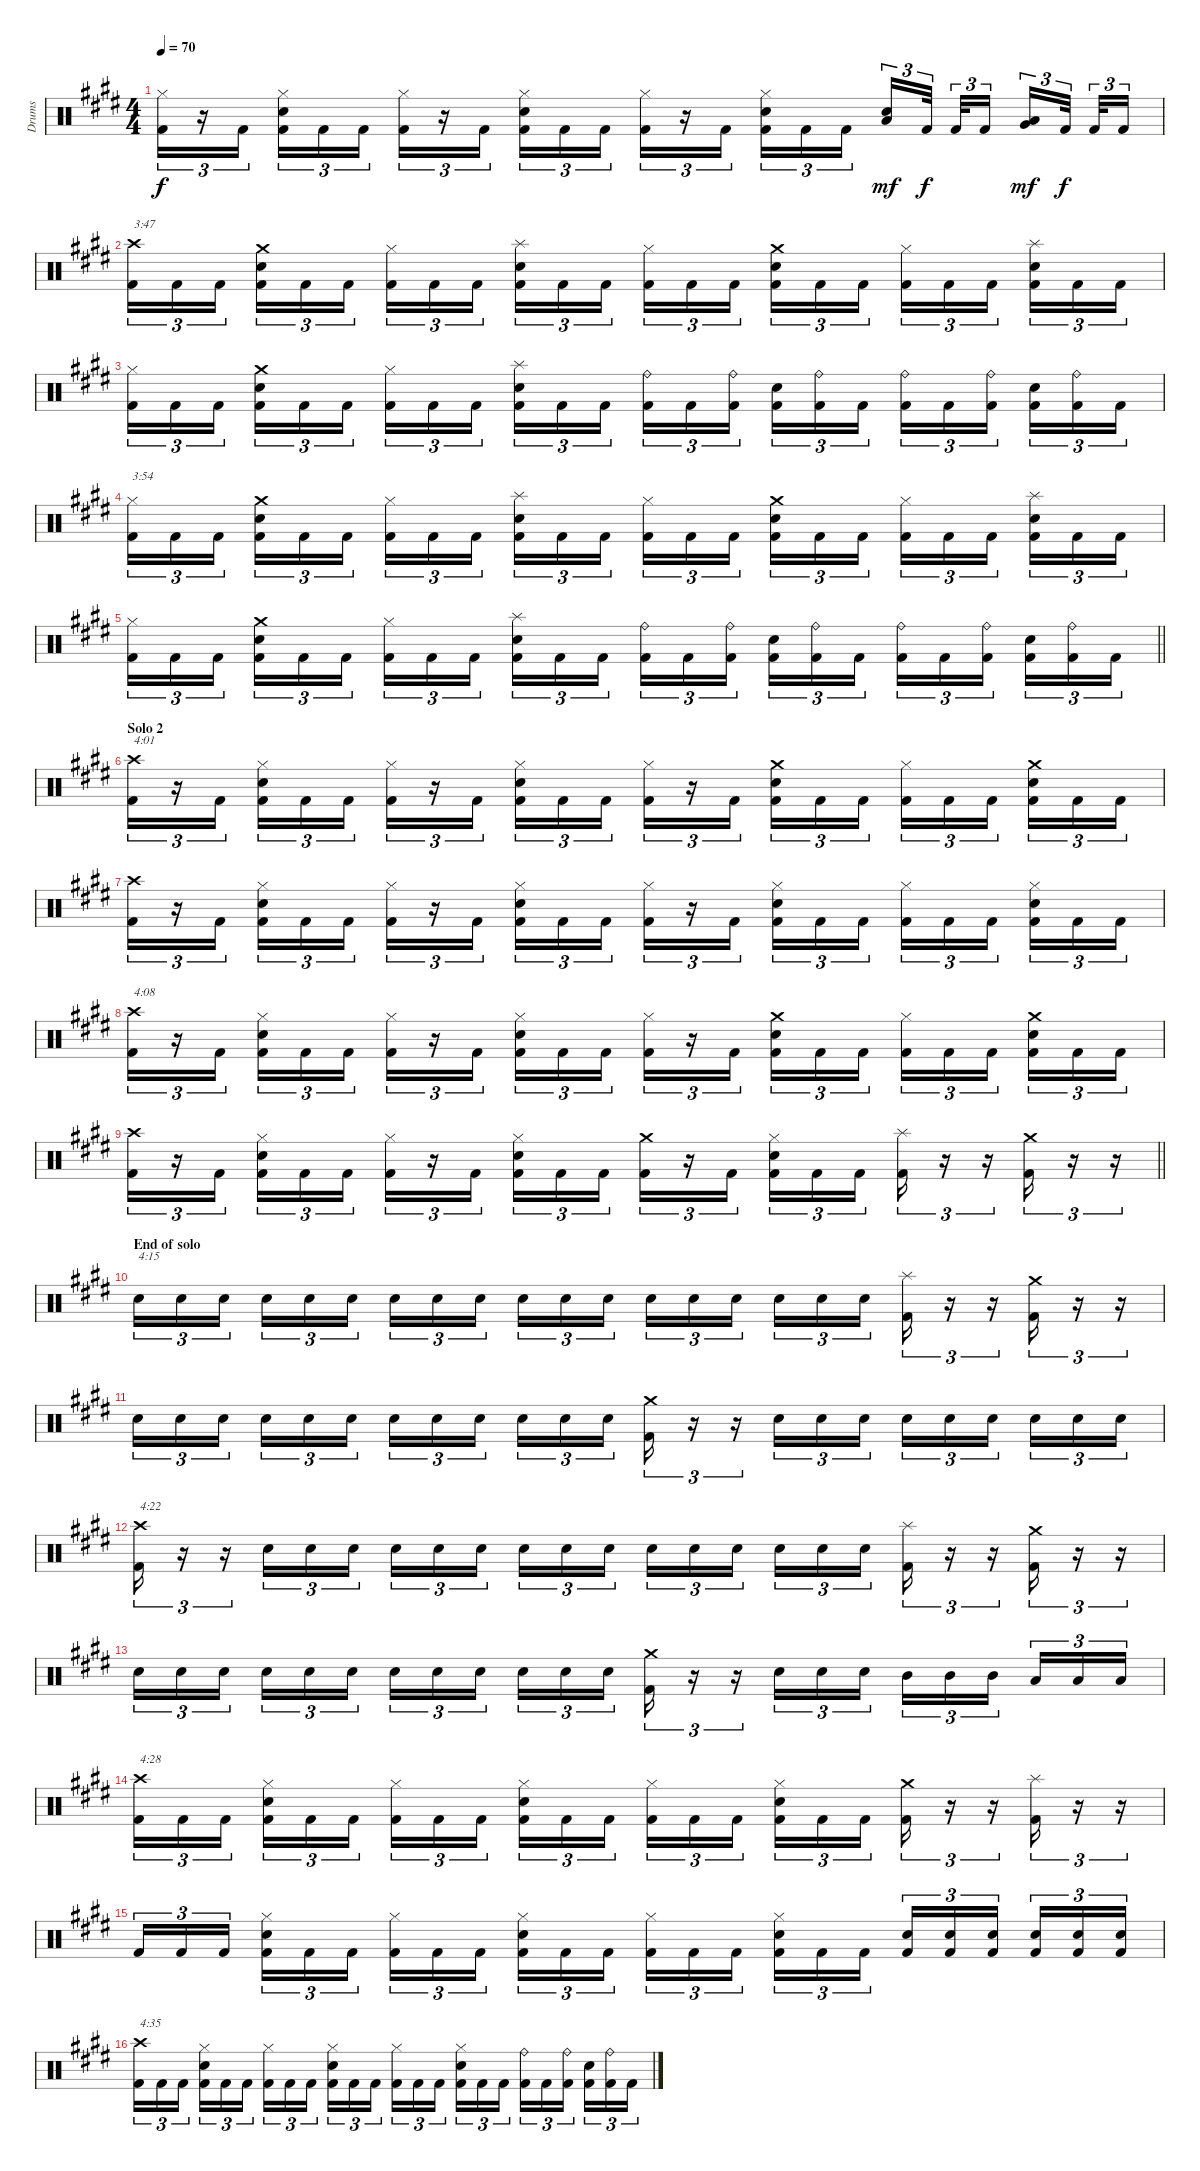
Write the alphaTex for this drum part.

\track ("Drums" "Drums") {instrument percussion}
\staff {score}
\articulation defaults
\ts (4 4)
\tempo 70
\clef neutral
\ks c#minor
("Hi-Hat (closed)" "Kick (hit) 2").16{tu (3 2) dy f} r.16{tu (3 2)} "Kick (hit) 2".16{tu (3 2) beam splitsecondary} ("Hi-Hat (closed)" "Snare (hit) 2" "Kick (hit) 2").16{tu (3 2)} "Kick (hit) 2".16{tu (3 2)} "Kick (hit) 2".16{tu (3 2)} ("Hi-Hat (closed)" "Kick (hit) 2").16{tu (3 2)} r.16{tu (3 2)} "Kick (hit) 2".16{tu (3 2) beam splitsecondary} ("Hi-Hat (closed)" "Snare (hit) 2" "Kick (hit) 2").16{tu (3 2)} "Kick (hit) 2".16{tu (3 2)} "Kick (hit) 2".16{tu (3 2)} ("Hi-Hat (closed)" "Kick (hit) 2").16{tu (3 2)} r.16{tu (3 2)} "Kick (hit) 2".16{tu (3 2) beam splitsecondary} ("Hi-Hat (closed)" "Snare (hit) 2" "Kick (hit) 2").16{tu (3 2)} "Kick (hit) 2".16{tu (3 2)} "Kick (hit) 2".16{tu (3 2)} ("Low Tom (hit)" "Snare (hit) 2").16{tu (3 2) dy mf} "Kick (hit) 2".32{tu (3 2) dy f beam splitsecondary} "Kick (hit) 2".32{tu (3 2)} "Kick (hit) 2".16{tu (3 2) beam splitsecondary} ("Very Low Tom (hit)" "Low Tom (hit)").16{tu (3 2) dy mf} "Kick (hit) 2".32{tu (3 2) dy f beam splitsecondary} "Kick (hit) 2".32{tu (3 2)} "Kick (hit) 2".16{tu (3 2)} |
("Crash high (hit)" "Kick (hit) 2").16{tu (3 2) txt "3:47"} "Kick (hit) 2".16{tu (3 2)} "Kick (hit) 2".16{tu (3 2) beam splitsecondary} ("Crash medium (hit)" "Snare (hit) 2" "Kick (hit) 2").16{tu (3 2)} "Kick (hit) 2".16{tu (3 2)} "Kick (hit) 2".16{tu (3 2)} ("Hi-Hat (closed)" "Kick (hit) 2").16{tu (3 2)} "Kick (hit) 2".16{tu (3 2)} "Kick (hit) 2".16{tu (3 2) beam splitsecondary} ("Splash (hit)" "Snare (hit) 2" "Kick (hit) 2").16{tu (3 2)} "Kick (hit) 2".16{tu (3 2)} "Kick (hit) 2".16{tu (3 2)} ("Hi-Hat (closed)" "Kick (hit) 2").16{tu (3 2)} "Kick (hit) 2".16{tu (3 2)} "Kick (hit) 2".16{tu (3 2) beam splitsecondary} ("Crash medium (hit)" "Snare (hit) 2" "Kick (hit) 2").16{tu (3 2)} "Kick (hit) 2".16{tu (3 2)} "Kick (hit) 2".16{tu (3 2)} ("Hi-Hat (closed)" "Kick (hit) 2").16{tu (3 2)} "Kick (hit) 2".16{tu (3 2)} "Kick (hit) 2".16{tu (3 2) beam splitsecondary} ("Splash (hit)" "Snare (hit) 2" "Kick (hit) 2").16{tu (3 2)} "Kick (hit) 2".16{tu (3 2)} "Kick (hit) 2".16{tu (3 2)} |
("Hi-Hat (closed)" "Kick (hit) 2").16{tu (3 2)} "Kick (hit) 2".16{tu (3 2)} "Kick (hit) 2".16{tu (3 2) beam splitsecondary} ("Crash medium (hit)" "Snare (hit) 2" "Kick (hit) 2").16{tu (3 2)} "Kick (hit) 2".16{tu (3 2)} "Kick (hit) 2".16{tu (3 2)} ("Hi-Hat (closed)" "Kick (hit) 2").16{tu (3 2)} "Kick (hit) 2".16{tu (3 2)} "Kick (hit) 2".16{tu (3 2) beam splitsecondary} ("Splash (hit)" "Snare (hit) 2" "Kick (hit) 2").16{tu (3 2)} "Kick (hit) 2".16{tu (3 2)} "Kick (hit) 2".16{tu (3 2)} ("Ride (bell)" "Kick (hit) 2").16{tu (3 2)} "Kick (hit) 2".16{tu (3 2)} ("Ride (bell)" "Kick (hit) 2").16{tu (3 2) beam splitsecondary} ("Snare (hit) 2" "Kick (hit) 2").16{tu (3 2)} ("Ride (bell)" "Kick (hit) 2").16{tu (3 2)} "Kick (hit) 2".16{tu (3 2)} ("Ride (bell)" "Kick (hit) 2").16{tu (3 2)} "Kick (hit) 2".16{tu (3 2)} ("Ride (bell)" "Kick (hit) 2").16{tu (3 2) beam splitsecondary} ("Snare (hit) 2" "Kick (hit) 2").16{tu (3 2)} ("Ride (bell)" "Kick (hit) 2").16{tu (3 2)} "Kick (hit) 2".16{tu (3 2)} |
("Hi-Hat (closed)" "Kick (hit) 2").16{tu (3 2) txt "3:54"} "Kick (hit) 2".16{tu (3 2)} "Kick (hit) 2".16{tu (3 2) beam splitsecondary} ("Crash medium (hit)" "Snare (hit) 2" "Kick (hit) 2").16{tu (3 2)} "Kick (hit) 2".16{tu (3 2)} "Kick (hit) 2".16{tu (3 2)} ("Hi-Hat (closed)" "Kick (hit) 2").16{tu (3 2)} "Kick (hit) 2".16{tu (3 2)} "Kick (hit) 2".16{tu (3 2) beam splitsecondary} ("Splash (hit)" "Snare (hit) 2" "Kick (hit) 2").16{tu (3 2)} "Kick (hit) 2".16{tu (3 2)} "Kick (hit) 2".16{tu (3 2)} ("Hi-Hat (closed)" "Kick (hit) 2").16{tu (3 2)} "Kick (hit) 2".16{tu (3 2)} "Kick (hit) 2".16{tu (3 2) beam splitsecondary} ("Crash medium (hit)" "Snare (hit) 2" "Kick (hit) 2").16{tu (3 2)} "Kick (hit) 2".16{tu (3 2)} "Kick (hit) 2".16{tu (3 2)} ("Hi-Hat (closed)" "Kick (hit) 2").16{tu (3 2)} "Kick (hit) 2".16{tu (3 2)} "Kick (hit) 2".16{tu (3 2) beam splitsecondary} ("Splash (hit)" "Snare (hit) 2" "Kick (hit) 2").16{tu (3 2)} "Kick (hit) 2".16{tu (3 2)} "Kick (hit) 2".16{tu (3 2)} |
\barLineRight lightlight
("Hi-Hat (closed)" "Kick (hit) 2").16{tu (3 2)} "Kick (hit) 2".16{tu (3 2)} "Kick (hit) 2".16{tu (3 2) beam splitsecondary} ("Crash medium (hit)" "Snare (hit) 2" "Kick (hit) 2").16{tu (3 2)} "Kick (hit) 2".16{tu (3 2)} "Kick (hit) 2".16{tu (3 2)} ("Hi-Hat (closed)" "Kick (hit) 2").16{tu (3 2)} "Kick (hit) 2".16{tu (3 2)} "Kick (hit) 2".16{tu (3 2) beam splitsecondary} ("Splash (hit)" "Snare (hit) 2" "Kick (hit) 2").16{tu (3 2)} "Kick (hit) 2".16{tu (3 2)} "Kick (hit) 2".16{tu (3 2)} ("Ride (bell)" "Kick (hit) 2").16{tu (3 2)} "Kick (hit) 2".16{tu (3 2)} ("Ride (bell)" "Kick (hit) 2").16{tu (3 2) beam splitsecondary} ("Snare (hit) 2" "Kick (hit) 2").16{tu (3 2)} ("Ride (bell)" "Kick (hit) 2").16{tu (3 2)} "Kick (hit) 2".16{tu (3 2)} ("Ride (bell)" "Kick (hit) 2").16{tu (3 2)} "Kick (hit) 2".16{tu (3 2)} ("Ride (bell)" "Kick (hit) 2").16{tu (3 2) beam splitsecondary} ("Snare (hit) 2" "Kick (hit) 2").16{tu (3 2)} ("Ride (bell)" "Kick (hit) 2").16{tu (3 2)} "Kick (hit) 2".16{tu (3 2)} |
\section ("" "Solo 2")
("Crash high (hit)" "Kick (hit) 2").16{tu (3 2) txt "4:01"} r.16{tu (3 2)} "Kick (hit) 2".16{tu (3 2) beam splitsecondary} ("Hi-Hat (closed)" "Snare (hit) 2" "Kick (hit) 2").16{tu (3 2)} "Kick (hit) 2".16{tu (3 2)} "Kick (hit) 2".16{tu (3 2)} ("Hi-Hat (closed)" "Kick (hit) 2").16{tu (3 2)} r.16{tu (3 2)} "Kick (hit) 2".16{tu (3 2) beam splitsecondary} ("Hi-Hat (closed)" "Snare (hit) 2" "Kick (hit) 2").16{tu (3 2)} "Kick (hit) 2".16{tu (3 2)} "Kick (hit) 2".16{tu (3 2)} ("Hi-Hat (closed)" "Kick (hit) 2").16{tu (3 2)} r.16{tu (3 2)} "Kick (hit) 2".16{tu (3 2) beam splitsecondary} ("Crash medium (hit)" "Snare (hit) 2" "Kick (hit) 2").16{tu (3 2)} "Kick (hit) 2".16{tu (3 2)} "Kick (hit) 2".16{tu (3 2)} ("Hi-Hat (closed)" "Kick (hit) 2").16{tu (3 2)} "Kick (hit) 2".16{tu (3 2)} "Kick (hit) 2".16{tu (3 2) beam splitsecondary} ("Crash medium (hit)" "Snare (hit) 2" "Kick (hit) 2").16{tu (3 2)} "Kick (hit) 2".16{tu (3 2)} "Kick (hit) 2".16{tu (3 2)} |
("Crash high (hit)" "Kick (hit) 2").16{tu (3 2)} r.16{tu (3 2)} "Kick (hit) 2".16{tu (3 2) beam splitsecondary} ("Hi-Hat (closed)" "Snare (hit) 2" "Kick (hit) 2").16{tu (3 2)} "Kick (hit) 2".16{tu (3 2)} "Kick (hit) 2".16{tu (3 2)} ("Hi-Hat (closed)" "Kick (hit) 2").16{tu (3 2)} r.16{tu (3 2)} "Kick (hit) 2".16{tu (3 2) beam splitsecondary} ("Hi-Hat (closed)" "Snare (hit) 2" "Kick (hit) 2").16{tu (3 2)} "Kick (hit) 2".16{tu (3 2)} "Kick (hit) 2".16{tu (3 2)} ("Hi-Hat (closed)" "Kick (hit) 2").16{tu (3 2)} r.16{tu (3 2)} "Kick (hit) 2".16{tu (3 2) beam splitsecondary} ("Hi-Hat (closed)" "Snare (hit) 2" "Kick (hit) 2").16{tu (3 2)} "Kick (hit) 2".16{tu (3 2)} "Kick (hit) 2".16{tu (3 2)} ("Hi-Hat (closed)" "Kick (hit) 2").16{tu (3 2)} "Kick (hit) 2".16{tu (3 2)} "Kick (hit) 2".16{tu (3 2) beam splitsecondary} ("Hi-Hat (closed)" "Snare (hit) 2" "Kick (hit) 2").16{tu (3 2)} "Kick (hit) 2".16{tu (3 2)} "Kick (hit) 2".16{tu (3 2)} |
("Crash high (hit)" "Kick (hit) 2").16{tu (3 2) txt "4:08"} r.16{tu (3 2)} "Kick (hit) 2".16{tu (3 2) beam splitsecondary} ("Hi-Hat (closed)" "Snare (hit) 2" "Kick (hit) 2").16{tu (3 2)} "Kick (hit) 2".16{tu (3 2)} "Kick (hit) 2".16{tu (3 2)} ("Hi-Hat (closed)" "Kick (hit) 2").16{tu (3 2)} r.16{tu (3 2)} "Kick (hit) 2".16{tu (3 2) beam splitsecondary} ("Hi-Hat (closed)" "Snare (hit) 2" "Kick (hit) 2").16{tu (3 2)} "Kick (hit) 2".16{tu (3 2)} "Kick (hit) 2".16{tu (3 2)} ("Hi-Hat (closed)" "Kick (hit) 2").16{tu (3 2)} r.16{tu (3 2)} "Kick (hit) 2".16{tu (3 2) beam splitsecondary} ("Crash medium (hit)" "Snare (hit) 2" "Kick (hit) 2").16{tu (3 2)} "Kick (hit) 2".16{tu (3 2)} "Kick (hit) 2".16{tu (3 2)} ("Hi-Hat (closed)" "Kick (hit) 2").16{tu (3 2)} "Kick (hit) 2".16{tu (3 2)} "Kick (hit) 2".16{tu (3 2) beam splitsecondary} ("Crash medium (hit)" "Snare (hit) 2" "Kick (hit) 2").16{tu (3 2)} "Kick (hit) 2".16{tu (3 2)} "Kick (hit) 2".16{tu (3 2)} |
\barLineRight lightlight
("Crash high (hit)" "Kick (hit) 2").16{tu (3 2)} r.16{tu (3 2)} "Kick (hit) 2".16{tu (3 2) beam splitsecondary} ("Hi-Hat (closed)" "Snare (hit) 2" "Kick (hit) 2").16{tu (3 2)} "Kick (hit) 2".16{tu (3 2)} "Kick (hit) 2".16{tu (3 2)} ("Hi-Hat (closed)" "Kick (hit) 2").16{tu (3 2)} r.16{tu (3 2)} "Kick (hit) 2".16{tu (3 2) beam splitsecondary} ("Hi-Hat (closed)" "Snare (hit) 2" "Kick (hit) 2").16{tu (3 2)} "Kick (hit) 2".16{tu (3 2)} "Kick (hit) 2".16{tu (3 2)} ("Crash medium (hit)" "Kick (hit) 2").16{tu (3 2)} r.16{tu (3 2)} "Kick (hit) 2".16{tu (3 2) beam splitsecondary} ("Hi-Hat (closed)" "Snare (hit) 2" "Kick (hit) 2").16{tu (3 2)} "Kick (hit) 2".16{tu (3 2)} "Kick (hit) 2".16{tu (3 2)} ("Splash (hit)" "Kick (hit) 2").16{tu (3 2)} r.16{tu (3 2)} r.16{tu (3 2)} ("Crash medium (hit)" "Kick (hit) 2").16{tu (3 2)} r.16{tu (3 2)} r.16{tu (3 2)} |
\section ("" "End of solo")
"Snare (hit) 2".16{tu (3 2) txt "4:15"} "Snare (hit) 2".16{tu (3 2)} "Snare (hit) 2".16{tu (3 2) beam splitsecondary} "Snare (hit) 2".16{tu (3 2)} "Snare (hit) 2".16{tu (3 2)} "Snare (hit) 2".16{tu (3 2)} "Snare (hit) 2".16{tu (3 2)} "Snare (hit) 2".16{tu (3 2)} "Snare (hit) 2".16{tu (3 2) beam splitsecondary} "Snare (hit) 2".16{tu (3 2)} "Snare (hit) 2".16{tu (3 2)} "Snare (hit) 2".16{tu (3 2)} "Snare (hit) 2".16{tu (3 2)} "Snare (hit) 2".16{tu (3 2)} "Snare (hit) 2".16{tu (3 2) beam splitsecondary} "Snare (hit) 2".16{tu (3 2)} "Snare (hit) 2".16{tu (3 2)} "Snare (hit) 2".16{tu (3 2)} ("Splash (hit)" "Kick (hit) 2").16{tu (3 2)} r.16{tu (3 2)} r.16{tu (3 2)} ("Crash medium (hit)" "Kick (hit) 2").16{tu (3 2)} r.16{tu (3 2)} r.16{tu (3 2)} |
"Snare (hit) 2".16{tu (3 2)} "Snare (hit) 2".16{tu (3 2)} "Snare (hit) 2".16{tu (3 2) beam splitsecondary} "Snare (hit) 2".16{tu (3 2)} "Snare (hit) 2".16{tu (3 2)} "Snare (hit) 2".16{tu (3 2)} "Snare (hit) 2".16{tu (3 2)} "Snare (hit) 2".16{tu (3 2)} "Snare (hit) 2".16{tu (3 2) beam splitsecondary} "Snare (hit) 2".16{tu (3 2)} "Snare (hit) 2".16{tu (3 2)} "Snare (hit) 2".16{tu (3 2)} ("Crash medium (hit)" "Kick (hit) 2").16{tu (3 2)} r.16{tu (3 2)} r.16{tu (3 2)} "Snare (hit) 2".16{tu (3 2)} "Snare (hit) 2".16{tu (3 2)} "Snare (hit) 2".16{tu (3 2)} "Snare (hit) 2".16{tu (3 2)} "Snare (hit) 2".16{tu (3 2)} "Snare (hit) 2".16{tu (3 2) beam splitsecondary} "Snare (hit) 2".16{tu (3 2)} "Snare (hit) 2".16{tu (3 2)} "Snare (hit) 2".16{tu (3 2)} |
("Crash high (hit)" "Kick (hit) 2").16{tu (3 2) txt "4:22"} r.16{tu (3 2)} r.16{tu (3 2)} "Snare (hit) 2".16{tu (3 2)} "Snare (hit) 2".16{tu (3 2)} "Snare (hit) 2".16{tu (3 2)} "Snare (hit) 2".16{tu (3 2)} "Snare (hit) 2".16{tu (3 2)} "Snare (hit) 2".16{tu (3 2) beam splitsecondary} "Snare (hit) 2".16{tu (3 2)} "Snare (hit) 2".16{tu (3 2)} "Snare (hit) 2".16{tu (3 2)} "Snare (hit) 2".16{tu (3 2)} "Snare (hit) 2".16{tu (3 2)} "Snare (hit) 2".16{tu (3 2) beam splitsecondary} "Snare (hit) 2".16{tu (3 2)} "Snare (hit) 2".16{tu (3 2)} "Snare (hit) 2".16{tu (3 2)} ("Splash (hit)" "Kick (hit) 2").16{tu (3 2)} r.16{tu (3 2)} r.16{tu (3 2)} ("Crash medium (hit)" "Kick (hit) 2").16{tu (3 2)} r.16{tu (3 2)} r.16{tu (3 2)} |
"Snare (hit) 2".16{tu (3 2)} "Snare (hit) 2".16{tu (3 2)} "Snare (hit) 2".16{tu (3 2) beam splitsecondary} "Snare (hit) 2".16{tu (3 2)} "Snare (hit) 2".16{tu (3 2)} "Snare (hit) 2".16{tu (3 2)} "Snare (hit) 2".16{tu (3 2)} "Snare (hit) 2".16{tu (3 2)} "Snare (hit) 2".16{tu (3 2) beam splitsecondary} "Snare (hit) 2".16{tu (3 2)} "Snare (hit) 2".16{tu (3 2)} "Snare (hit) 2".16{tu (3 2)} ("Crash medium (hit)" "Kick (hit) 2").16{tu (3 2)} r.16{tu (3 2)} r.16{tu (3 2)} "Snare (hit) 2".16{tu (3 2)} "Snare (hit) 2".16{tu (3 2)} "Snare (hit) 2".16{tu (3 2)} "Mid Tom (hit)".16{tu (3 2)} "Mid Tom (hit)".16{tu (3 2)} "Mid Tom (hit)".16{tu (3 2) beam splitsecondary} "Low Tom (hit)".16{tu (3 2)} "Low Tom (hit)".16{tu (3 2)} "Low Tom (hit)".16{tu (3 2)} |
("Crash high (hit)" "Kick (hit) 2").16{tu (3 2) txt "4:28"} "Kick (hit) 2".16{tu (3 2)} "Kick (hit) 2".16{tu (3 2) beam splitsecondary} ("Hi-Hat (closed)" "Snare (hit) 2" "Kick (hit) 2").16{tu (3 2)} "Kick (hit) 2".16{tu (3 2)} "Kick (hit) 2".16{tu (3 2)} ("Hi-Hat (closed)" "Kick (hit) 2").16{tu (3 2)} "Kick (hit) 2".16{tu (3 2)} "Kick (hit) 2".16{tu (3 2) beam splitsecondary} ("Hi-Hat (closed)" "Snare (hit) 2" "Kick (hit) 2").16{tu (3 2)} "Kick (hit) 2".16{tu (3 2)} "Kick (hit) 2".16{tu (3 2)} ("Hi-Hat (closed)" "Kick (hit) 2").16{tu (3 2)} "Kick (hit) 2".16{tu (3 2)} "Kick (hit) 2".16{tu (3 2) beam splitsecondary} ("Hi-Hat (closed)" "Snare (hit) 2" "Kick (hit) 2").16{tu (3 2)} "Kick (hit) 2".16{tu (3 2)} "Kick (hit) 2".16{tu (3 2)} ("Crash medium (hit)" "Kick (hit) 2").16{tu (3 2)} r.16{tu (3 2)} r.16{tu (3 2)} ("Splash (hit)" "Kick (hit) 2").16{tu (3 2)} r.16{tu (3 2)} r.16{tu (3 2)} |
"Kick (hit) 2".16{tu (3 2)} "Kick (hit) 2".16{tu (3 2)} "Kick (hit) 2".16{tu (3 2) beam splitsecondary} ("Hi-Hat (closed)" "Snare (hit) 2" "Kick (hit) 2").16{tu (3 2)} "Kick (hit) 2".16{tu (3 2)} "Kick (hit) 2".16{tu (3 2)} ("Hi-Hat (closed)" "Kick (hit) 2").16{tu (3 2)} "Kick (hit) 2".16{tu (3 2)} "Kick (hit) 2".16{tu (3 2) beam splitsecondary} ("Hi-Hat (closed)" "Snare (hit) 2" "Kick (hit) 2").16{tu (3 2)} "Kick (hit) 2".16{tu (3 2)} "Kick (hit) 2".16{tu (3 2)} ("Hi-Hat (closed)" "Kick (hit) 2").16{tu (3 2)} "Kick (hit) 2".16{tu (3 2)} "Kick (hit) 2".16{tu (3 2) beam splitsecondary} ("Hi-Hat (closed)" "Snare (hit) 2" "Kick (hit) 2").16{tu (3 2)} "Kick (hit) 2".16{tu (3 2)} "Kick (hit) 2".16{tu (3 2)} ("Snare (hit) 2" "Kick (hit) 2").16{tu (3 2)} ("Snare (hit) 2" "Kick (hit) 2").16{tu (3 2)} ("Snare (hit) 2" "Kick (hit) 2").16{tu (3 2) beam splitsecondary} ("Snare (hit) 2" "Kick (hit) 2").16{tu (3 2)} ("Snare (hit) 2" "Kick (hit) 2").16{tu (3 2)} ("Snare (hit) 2" "Kick (hit) 2").16{tu (3 2)} |
("Crash high (hit)" "Kick (hit) 2").16{tu (3 2) txt "4:35"} "Kick (hit) 2".16{tu (3 2)} "Kick (hit) 2".16{tu (3 2) beam splitsecondary} ("Hi-Hat (closed)" "Snare (hit) 2" "Kick (hit) 2").16{tu (3 2)} "Kick (hit) 2".16{tu (3 2)} "Kick (hit) 2".16{tu (3 2)} ("Hi-Hat (closed)" "Kick (hit) 2").16{tu (3 2)} "Kick (hit) 2".16{tu (3 2)} "Kick (hit) 2".16{tu (3 2) beam splitsecondary} ("Hi-Hat (closed)" "Snare (hit) 2" "Kick (hit) 2").16{tu (3 2)} "Kick (hit) 2".16{tu (3 2)} "Kick (hit) 2".16{tu (3 2)} ("Hi-Hat (closed)" "Kick (hit) 2").16{tu (3 2)} "Kick (hit) 2".16{tu (3 2)} "Kick (hit) 2".16{tu (3 2) beam splitsecondary} ("Hi-Hat (closed)" "Snare (hit) 2" "Kick (hit) 2").16{tu (3 2)} "Kick (hit) 2".16{tu (3 2)} "Kick (hit) 2".16{tu (3 2)} ("Ride (bell)" "Kick (hit) 2").16{tu (3 2)} "Kick (hit) 2".16{tu (3 2)} ("Ride (bell)" "Kick (hit) 2").16{tu (3 2) beam splitsecondary} ("Snare (hit) 2" "Kick (hit) 2").16{tu (3 2)} ("Ride (bell)" "Kick (hit) 2").16{tu (3 2)} "Kick (hit) 2".16{tu (3 2)}
